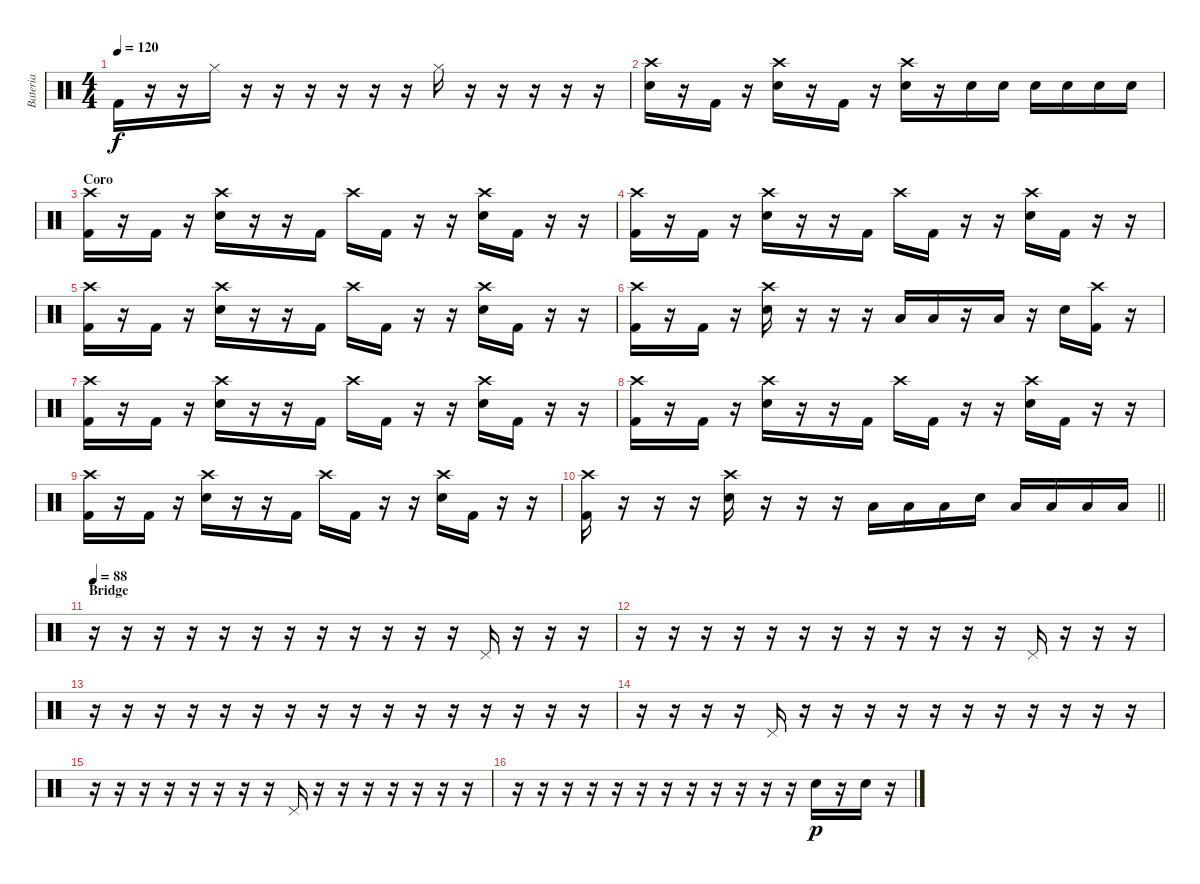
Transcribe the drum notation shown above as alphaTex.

\track ("Bateria" "Bateria") {instrument percussion}
\staff {score}
\articulation defaults
\ts (4 4)
\tempo 120
\clef neutral
\ks c "Kick (hit) 2".16{dy f}
r.16 r.16 "Hi-Hat (closed)".16 r.16 r.16 r.16 r.16 r.16 r.16 "Hi-Hat (closed)".16 r.16 r.16 r.16 r.16 r.16 |
("Crash high (hit)" "Snare (hit) 2").16 r.16 "Kick (hit) 2".16 r.16 ("Crash high (hit)" "Snare (hit) 2").16 r.16 "Kick (hit) 2".16 r.16 ("Crash high (hit)" "Snare (hit) 2").16 r.16 "Snare (hit) 2".16 "Snare (hit) 2".16 "Snare (hit) 2".16 "Snare (hit) 2".16 "Snare (hit) 2".16 "Snare (hit) 2".16 |
\section ("" "Coro")
("Crash high (hit)" "Kick (hit) 2").16 r.16 "Kick (hit) 2".16 r.16 ("Crash high (hit)" "Snare (hit) 2").16 r.16 r.16 "Kick (hit) 2".16 "Crash high (hit)".16 "Kick (hit) 2".16 r.16 r.16 ("Crash high (hit)" "Snare (hit) 2").16 "Kick (hit) 2".16 r.16 r.16 |
("Crash high (hit)" "Kick (hit) 2").16 r.16 "Kick (hit) 2".16 r.16 ("Crash high (hit)" "Snare (hit) 2").16 r.16 r.16 "Kick (hit) 2".16 "Crash high (hit)".16 "Kick (hit) 2".16 r.16 r.16 ("Crash high (hit)" "Snare (hit) 2").16 "Kick (hit) 2".16 r.16 r.16 |
("Crash high (hit)" "Kick (hit) 2").16 r.16 "Kick (hit) 2".16 r.16 ("Crash high (hit)" "Snare (hit) 2").16 r.16 r.16 "Kick (hit) 2".16 "Crash high (hit)".16 "Kick (hit) 2".16 r.16 r.16 ("Crash high (hit)" "Snare (hit) 2").16 "Kick (hit) 2".16 r.16 r.16 |
("Crash high (hit)" "Kick (hit) 2").16 r.16 "Kick (hit) 2".16 r.16 ("Crash high (hit)" "Snare (hit) 2").16 r.16 r.16 r.16 "Low Tom (hit)".16 "Low Tom (hit)".16 r.16 "Low Floor Tom (hit)".16 r.16 "Snare (hit) 2".16 ("Crash high (hit)" "Kick (hit) 2").16 r.16 |
("Crash high (hit)" "Kick (hit) 2").16 r.16 "Kick (hit) 2".16 r.16 ("Crash high (hit)" "Snare (hit) 2").16 r.16 r.16 "Kick (hit) 2".16 "Crash high (hit)".16 "Kick (hit) 2".16 r.16 r.16 ("Crash high (hit)" "Snare (hit) 2").16 "Kick (hit) 2".16 r.16 r.16 |
("Crash high (hit)" "Kick (hit) 2").16 r.16 "Kick (hit) 2".16 r.16 ("Crash high (hit)" "Snare (hit) 2").16 r.16 r.16 "Kick (hit) 2".16 "Crash high (hit)".16 "Kick (hit) 2".16 r.16 r.16 ("Crash high (hit)" "Snare (hit) 2").16 "Kick (hit) 2".16 r.16 r.16 |
("Crash high (hit)" "Kick (hit) 2").16 r.16 "Kick (hit) 2".16 r.16 ("Crash high (hit)" "Snare (hit) 2").16 r.16 r.16 "Kick (hit) 2".16 "Crash high (hit)".16 "Kick (hit) 2".16 r.16 r.16 ("Crash high (hit)" "Snare (hit) 2").16 "Kick (hit) 2".16 r.16 r.16 |
\barLineRight lightlight
("Crash high (hit)" "Kick (hit) 2").16 r.16 r.16 r.16 ("Crash high (hit)" "Snare (hit) 2").16 r.16 r.16 r.16 "Low Tom (hit)".16 "Low Tom (hit)".16 "Low Floor Tom (hit)".16 "Snare (hit) 2".16 "Low Floor Tom (hit)".16 "Low Floor Tom (hit)".16 "Low Floor Tom (hit)".16 "Low Floor Tom (hit)".16 |
\section ("" "Bridge")
\tempo 88
r.16 r.16 r.16 r.16 r.16 r.16 r.16 r.16 r.16 r.16 r.16 r.16 "Pedal Hi-Hat (hit)".16 r.16 r.16 r.16 |
r.16 r.16 r.16 r.16 r.16 r.16 r.16 r.16 r.16 r.16 r.16 r.16 "Pedal Hi-Hat (hit)".16 r.16 r.16 r.16 |
r.16 r.16 r.16 r.16 r.16 r.16 r.16 r.16 r.16 r.16 r.16 r.16 r.16 r.16 r.16 r.16 |
r.16 r.16 r.16 r.16 "Pedal Hi-Hat (hit)".16 r.16 r.16 r.16 r.16 r.16 r.16 r.16 r.16 r.16 r.16 r.16 |
r.16 r.16 r.16 r.16 r.16 r.16 r.16 r.16 "Pedal Hi-Hat (hit)".16 r.16 r.16 r.16 r.16 r.16 r.16 r.16 |
r.16 r.16 r.16 r.16 r.16 r.16 r.16 r.16 r.16 r.16 r.16 r.16 "Snare (hit) 2".16{dy p} r.16 "Snare (hit) 2".16 r.16
